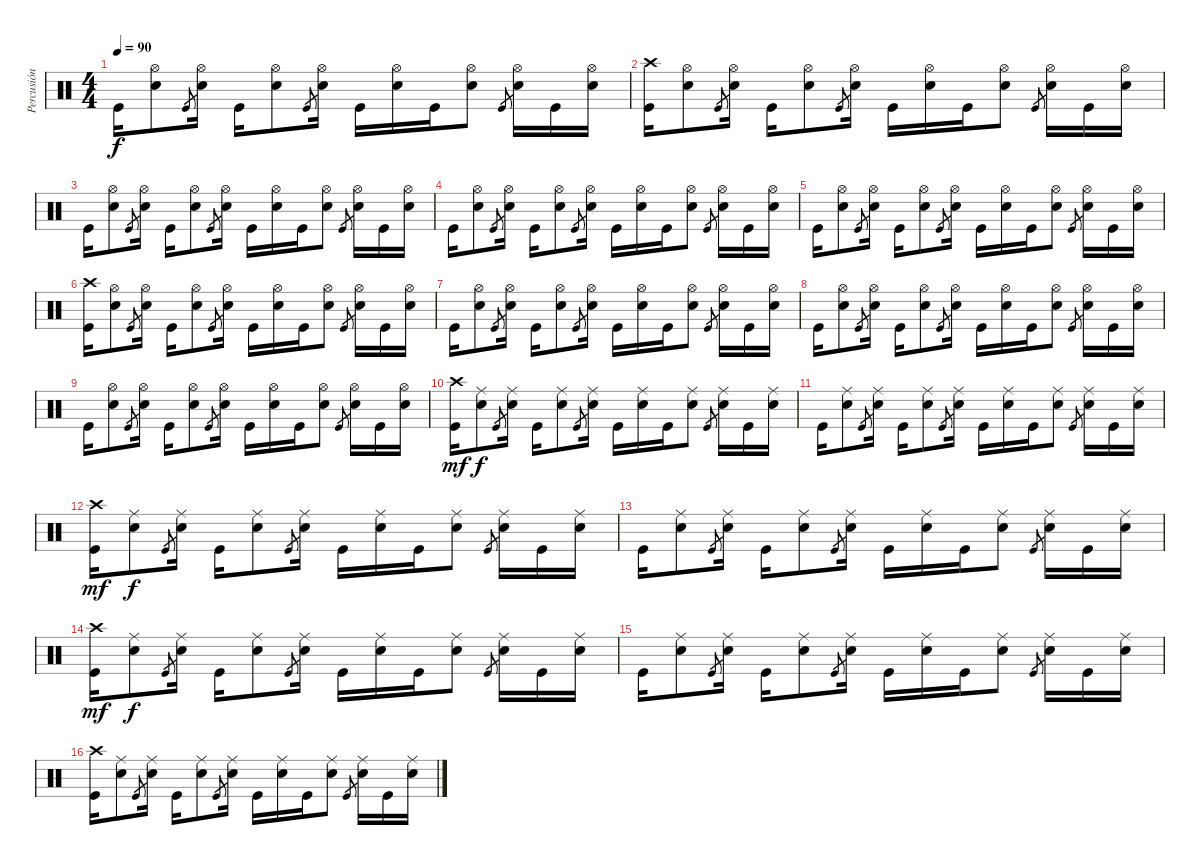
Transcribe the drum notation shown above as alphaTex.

\track ("Percusión" "Percusión") {instrument percussion}
\staff {score}
\articulation defaults
\ts (4 4)
\tempo 90
\clef neutral
\ks c "Kick (hit)".16{dy f}
("Snare (hit) 2" "Hi-Hat (open)").8 "Kick (hit)".8{gr} ("Snare (hit) 2" "Hi-Hat (open)").16 "Kick (hit)".16 ("Snare (hit) 2" "Hi-Hat (open)").8 "Kick (hit)".8{gr} ("Snare (hit) 2" "Hi-Hat (open)").16 "Kick (hit)".16 ("Snare (hit) 2" "Hi-Hat (open)").16 "Kick (hit)".16 ("Snare (hit) 2" "Hi-Hat (open)").8 "Kick (hit)".8{gr} ("Snare (hit) 2" "Hi-Hat (open)").16 "Kick (hit)".16 ("Snare (hit) 2" "Hi-Hat (open)").16 |
("Kick (hit)" "Crash high (hit)").16 ("Snare (hit) 2" "Hi-Hat (open)").8 "Kick (hit)".8{gr} ("Snare (hit) 2" "Hi-Hat (open)").16 "Kick (hit)".16 ("Snare (hit) 2" "Hi-Hat (open)").8 "Kick (hit)".8{gr} ("Snare (hit) 2" "Hi-Hat (open)").16 "Kick (hit)".16 ("Snare (hit) 2" "Hi-Hat (open)").16 "Kick (hit)".16 ("Snare (hit) 2" "Hi-Hat (open)").8 "Kick (hit)".8{gr} ("Snare (hit) 2" "Hi-Hat (open)").16 "Kick (hit)".16 ("Snare (hit) 2" "Hi-Hat (open)").16 |
"Kick (hit)".16 ("Snare (hit) 2" "Hi-Hat (open)").8 "Kick (hit)".8{gr} ("Snare (hit) 2" "Hi-Hat (open)").16 "Kick (hit)".16 ("Snare (hit) 2" "Hi-Hat (open)").8 "Kick (hit)".8{gr} ("Snare (hit) 2" "Hi-Hat (open)").16 "Kick (hit)".16 ("Snare (hit) 2" "Hi-Hat (open)").16 "Kick (hit)".16 ("Snare (hit) 2" "Hi-Hat (open)").8 "Kick (hit)".8{gr} ("Snare (hit) 2" "Hi-Hat (open)").16 "Kick (hit)".16 ("Snare (hit) 2" "Hi-Hat (open)").16 |
"Kick (hit)".16 ("Snare (hit) 2" "Hi-Hat (open)").8 "Kick (hit)".8{gr} ("Snare (hit) 2" "Hi-Hat (open)").16 "Kick (hit)".16 ("Snare (hit) 2" "Hi-Hat (open)").8 "Kick (hit)".8{gr} ("Snare (hit) 2" "Hi-Hat (open)").16 "Kick (hit)".16 ("Snare (hit) 2" "Hi-Hat (open)").16 "Kick (hit)".16 ("Snare (hit) 2" "Hi-Hat (open)").8 "Kick (hit)".8{gr} ("Snare (hit) 2" "Hi-Hat (open)").16 "Kick (hit)".16 ("Snare (hit) 2" "Hi-Hat (open)").16 |
"Kick (hit)".16 ("Snare (hit) 2" "Hi-Hat (open)").8 "Kick (hit)".8{gr} ("Snare (hit) 2" "Hi-Hat (open)").16 "Kick (hit)".16 ("Snare (hit) 2" "Hi-Hat (open)").8 "Kick (hit)".8{gr} ("Snare (hit) 2" "Hi-Hat (open)").16 "Kick (hit)".16 ("Snare (hit) 2" "Hi-Hat (open)").16 "Kick (hit)".16 ("Snare (hit) 2" "Hi-Hat (open)").8 "Kick (hit)".8{gr} ("Snare (hit) 2" "Hi-Hat (open)").16 "Kick (hit)".16 ("Snare (hit) 2" "Hi-Hat (open)").16 |
("Kick (hit)" "Crash high (hit)").16 ("Snare (hit) 2" "Hi-Hat (open)").8 "Kick (hit)".8{gr} ("Snare (hit) 2" "Hi-Hat (open)").16 "Kick (hit)".16 ("Snare (hit) 2" "Hi-Hat (open)").8 "Kick (hit)".8{gr} ("Snare (hit) 2" "Hi-Hat (open)").16 "Kick (hit)".16 ("Snare (hit) 2" "Hi-Hat (open)").16 "Kick (hit)".16 ("Snare (hit) 2" "Hi-Hat (open)").8 "Kick (hit)".8{gr} ("Snare (hit) 2" "Hi-Hat (open)").16 "Kick (hit)".16 ("Snare (hit) 2" "Hi-Hat (open)").16 |
"Kick (hit)".16 ("Snare (hit) 2" "Hi-Hat (open)").8 "Kick (hit)".8{gr} ("Snare (hit) 2" "Hi-Hat (open)").16 "Kick (hit)".16 ("Snare (hit) 2" "Hi-Hat (open)").8 "Kick (hit)".8{gr} ("Snare (hit) 2" "Hi-Hat (open)").16 "Kick (hit)".16 ("Snare (hit) 2" "Hi-Hat (open)").16 "Kick (hit)".16 ("Snare (hit) 2" "Hi-Hat (open)").8 "Kick (hit)".8{gr} ("Snare (hit) 2" "Hi-Hat (open)").16 "Kick (hit)".16 ("Snare (hit) 2" "Hi-Hat (open)").16 |
"Kick (hit)".16 ("Snare (hit) 2" "Hi-Hat (open)").8 "Kick (hit)".8{gr} ("Snare (hit) 2" "Hi-Hat (open)").16 "Kick (hit)".16 ("Snare (hit) 2" "Hi-Hat (open)").8 "Kick (hit)".8{gr} ("Snare (hit) 2" "Hi-Hat (open)").16 "Kick (hit)".16 ("Snare (hit) 2" "Hi-Hat (open)").16 "Kick (hit)".16 ("Snare (hit) 2" "Hi-Hat (open)").8 "Kick (hit)".8{gr} ("Snare (hit) 2" "Hi-Hat (open)").16 "Kick (hit)".16 ("Snare (hit) 2" "Hi-Hat (open)").16 |
"Kick (hit)".16 ("Snare (hit) 2" "Hi-Hat (open)").8 "Kick (hit)".8{gr} ("Snare (hit) 2" "Hi-Hat (open)").16 "Kick (hit)".16 ("Snare (hit) 2" "Hi-Hat (open)").8 "Kick (hit)".8{gr} ("Snare (hit) 2" "Hi-Hat (open)").16 "Kick (hit)".16 ("Snare (hit) 2" "Hi-Hat (open)").16 "Kick (hit)".16 ("Snare (hit) 2" "Hi-Hat (open)").8 "Kick (hit)".8{gr} ("Snare (hit) 2" "Hi-Hat (open)").16 "Kick (hit)".16 ("Snare (hit) 2" "Hi-Hat (open)").16 |
("Kick (hit)" "Crash high (hit)").16{dy mf} ("Snare (hit) 2" "Ride (middle)").8{dy f} "Kick (hit)".8{gr} ("Snare (hit) 2" "Ride (middle)").16 "Kick (hit)".16 ("Snare (hit) 2" "Ride (middle)").8 "Kick (hit)".8{gr} ("Snare (hit) 2" "Ride (middle)").16 "Kick (hit)".16 ("Snare (hit) 2" "Ride (middle)").16 "Kick (hit)".16 ("Snare (hit) 2" "Ride (middle)").8 "Kick (hit)".8{gr} ("Snare (hit) 2" "Ride (middle)").16 "Kick (hit)".16 ("Snare (hit) 2" "Ride (middle)").16 |
"Kick (hit)".16 ("Snare (hit) 2" "Ride (middle)").8 "Kick (hit)".8{gr} ("Snare (hit) 2" "Ride (middle)").16 "Kick (hit)".16 ("Snare (hit) 2" "Ride (middle)").8 "Kick (hit)".8{gr} ("Snare (hit) 2" "Ride (middle)").16 "Kick (hit)".16 ("Snare (hit) 2" "Ride (middle)").16 "Kick (hit)".16 ("Snare (hit) 2" "Ride (middle)").8 "Kick (hit)".8{gr} ("Snare (hit) 2" "Ride (middle)").16 "Kick (hit)".16 ("Snare (hit) 2" "Ride (middle)").16 |
("Kick (hit)" "Crash high (hit)").16{dy mf} ("Snare (hit) 2" "Ride (middle)").8{dy f} "Kick (hit)".8{gr} ("Snare (hit) 2" "Ride (middle)").16 "Kick (hit)".16 ("Snare (hit) 2" "Ride (middle)").8 "Kick (hit)".8{gr} ("Snare (hit) 2" "Ride (middle)").16 "Kick (hit)".16 ("Snare (hit) 2" "Ride (middle)").16 "Kick (hit)".16 ("Snare (hit) 2" "Ride (middle)").8 "Kick (hit)".8{gr} ("Snare (hit) 2" "Ride (middle)").16 "Kick (hit)".16 ("Snare (hit) 2" "Ride (middle)").16 |
"Kick (hit)".16 ("Snare (hit) 2" "Ride (middle)").8 "Kick (hit)".8{gr} ("Snare (hit) 2" "Ride (middle)").16 "Kick (hit)".16 ("Snare (hit) 2" "Ride (middle)").8 "Kick (hit)".8{gr} ("Snare (hit) 2" "Ride (middle)").16 "Kick (hit)".16 ("Snare (hit) 2" "Ride (middle)").16 "Kick (hit)".16 ("Snare (hit) 2" "Ride (middle)").8 "Kick (hit)".8{gr} ("Snare (hit) 2" "Ride (middle)").16 "Kick (hit)".16 ("Snare (hit) 2" "Ride (middle)").16 |
("Kick (hit)" "Crash high (hit)").16{dy mf} ("Snare (hit) 2" "Ride (middle)").8{dy f} "Kick (hit)".8{gr} ("Snare (hit) 2" "Ride (middle)").16 "Kick (hit)".16 ("Snare (hit) 2" "Ride (middle)").8 "Kick (hit)".8{gr} ("Snare (hit) 2" "Ride (middle)").16 "Kick (hit)".16 ("Snare (hit) 2" "Ride (middle)").16 "Kick (hit)".16 ("Snare (hit) 2" "Ride (middle)").8 "Kick (hit)".8{gr} ("Snare (hit) 2" "Ride (middle)").16 "Kick (hit)".16 ("Snare (hit) 2" "Ride (middle)").16 |
"Kick (hit)".16 ("Snare (hit) 2" "Ride (middle)").8 "Kick (hit)".8{gr} ("Snare (hit) 2" "Ride (middle)").16 "Kick (hit)".16 ("Snare (hit) 2" "Ride (middle)").8 "Kick (hit)".8{gr} ("Snare (hit) 2" "Ride (middle)").16 "Kick (hit)".16 ("Snare (hit) 2" "Ride (middle)").16 "Kick (hit)".16 ("Snare (hit) 2" "Ride (middle)").8 "Kick (hit)".8{gr} ("Snare (hit) 2" "Ride (middle)").16 "Kick (hit)".16 ("Snare (hit) 2" "Ride (middle)").16 |
("Kick (hit)" "Crash high (hit)").16 ("Snare (hit) 2" "Ride (middle)").8 "Kick (hit)".8{gr} ("Snare (hit) 2" "Ride (middle)").16 "Kick (hit)".16 ("Snare (hit) 2" "Ride (middle)").8 "Kick (hit)".8{gr} ("Snare (hit) 2" "Ride (middle)").16 "Kick (hit)".16 ("Snare (hit) 2" "Ride (middle)").16 "Kick (hit)".16 ("Snare (hit) 2" "Ride (middle)").8 "Kick (hit)".8{gr} ("Snare (hit) 2" "Ride (middle)").16 "Kick (hit)".16 ("Snare (hit) 2" "Ride (middle)").16
